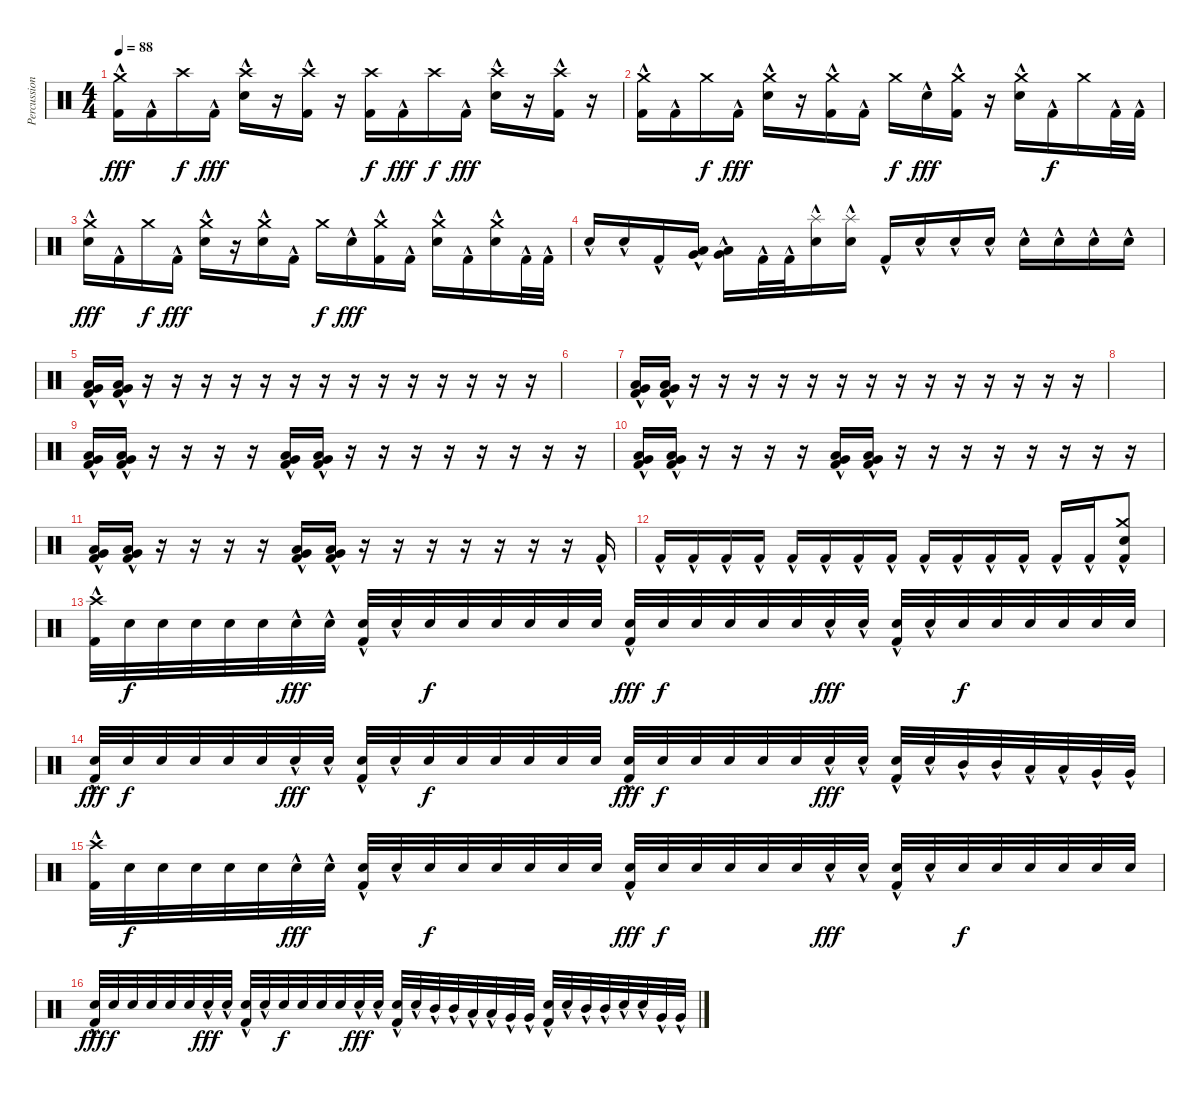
\track ("Percussion" "Percussion") {instrument percussion}
\staff {score}
\articulation defaults
\ts (4 4)
\tempo 88
\clef neutral
\ks c
("Kick (hit) 2"{hac} "Crash medium (hit)").16{dy fff} "Kick (hit) 2"{hac}.16 "Crash high (hit)".16{dy f} "Kick (hit) 2"{hac}.16{dy fff} ("Electric Snare (hit)"{hac} "Crash high (hit)").16 r.16 ("Kick (hit) 2"{hac} "Crash high (hit)").16 r.16 ("Kick (hit) 2" "Crash high (hit)").16{dy f} "Kick (hit) 2"{hac}.16{dy fff} "Crash high (hit)".16{dy f} "Kick (hit) 2"{hac}.16{dy fff} ("Electric Snare (hit)"{hac} "Crash high (hit)").16 r.16 ("Kick (hit) 2"{hac} "Crash high (hit)").16 r.16 |
("Kick (hit) 2"{hac} "Crash medium (hit)").16 "Kick (hit) 2"{hac}.16 "Crash medium (hit)".16{dy f} "Kick (hit) 2"{hac}.16{dy fff} ("Electric Snare (hit)"{hac} "Crash medium (hit)").16 r.16 ("Kick (hit) 2"{hac} "Crash medium (hit)").16 "Kick (hit) 2"{hac}.16 "Crash medium (hit)".16{dy f} "Electric Snare (hit)"{hac}.16{dy fff} ("Kick (hit) 2"{hac} "Crash medium (hit)").16 r.16 ("Electric Snare (hit)"{hac} "Crash medium (hit)").16 "Kick (hit) 2"{hac}.16{dy f} "Crash medium (hit)".16 "Kick (hit) 2"{hac}.32 "Kick (hit) 2"{hac}.32 |
("Electric Snare (hit)"{hac} "Crash medium (hit)").16{dy fff} "Kick (hit) 2"{hac}.16 "Crash medium (hit)".16{dy f} "Kick (hit) 2"{hac}.16{dy fff} ("Electric Snare (hit)"{hac} "Crash medium (hit)").16 r.16 ("Electric Snare (hit)"{hac} "Crash medium (hit)").16 "Kick (hit) 2"{hac}.16 "Crash medium (hit)".16{dy f} "Electric Snare (hit)"{hac}.16{dy fff} ("Kick (hit) 2"{hac} "Crash medium (hit)").16 "Kick (hit) 2"{hac}.16 ("Electric Snare (hit)"{hac} "Crash medium (hit)").16 "Kick (hit) 2"{hac}.16 ("Electric Snare (hit)"{hac} "Crash medium (hit)").16 "Kick (hit) 2"{hac}.32 "Kick (hit) 2"{hac}.32 |
"Electric Snare (hit)"{hac}.16 "Electric Snare (hit)"{hac}.16 "Kick (hit) 2"{hac}.16 ("Low Tom (hit)"{hac} "Very Low Tom (hit)"{hac}).16 ("Low Tom (hit)"{hac} "Very Low Tom (hit)"{hac}).16 "Kick (hit) 2"{hac}.32 "Kick (hit) 2"{hac}.32 ("Electric Snare (hit)"{hac} "Splash (hit)").16 ("Electric Snare (hit)"{hac} "Splash (hit)").16 "Kick (hit) 2"{hac}.16 "Electric Snare (hit)"{hac}.16 "Electric Snare (hit)"{hac}.16 "Electric Snare (hit)"{hac}.16 "Electric Snare (hit)"{hac}.16 "Electric Snare (hit)"{hac}.16 "Electric Snare (hit)"{hac}.16 "Electric Snare (hit)"{hac}.16 |
("Kick (hit) 2"{hac} "Very Low Tom (hit)"{hac} "Low Tom (hit)"{hac}).16 ("Kick (hit) 2"{hac} "Very Low Tom (hit)"{hac} "Low Tom (hit)"{hac}).16 r.16 r.16 r.16 r.16 r.16 r.16 r.16 r.16 r.16 r.16 r.16 r.16 r.16 r.16 |
|
("Kick (hit) 2"{hac} "Very Low Tom (hit)"{hac} "Low Tom (hit)"{hac}).16 ("Kick (hit) 2"{hac} "Very Low Tom (hit)"{hac} "Low Tom (hit)"{hac}).16 r.16 r.16 r.16 r.16 r.16 r.16 r.16 r.16 r.16 r.16 r.16 r.16 r.16 r.16 |
|
("Kick (hit) 2"{hac} "Very Low Tom (hit)"{hac} "Low Tom (hit)"{hac}).16 ("Kick (hit) 2"{hac} "Very Low Tom (hit)"{hac} "Low Tom (hit)"{hac}).16 r.16 r.16 r.16 r.16 ("Kick (hit) 2"{hac} "Very Low Tom (hit)"{hac} "Low Tom (hit)"{hac}).16 ("Kick (hit) 2"{hac} "Very Low Tom (hit)"{hac} "Low Tom (hit)"{hac}).16 r.16 r.16 r.16 r.16 r.16 r.16 r.16 r.16 |
("Kick (hit) 2"{hac} "Very Low Tom (hit)"{hac} "Low Tom (hit)"{hac}).16 ("Kick (hit) 2"{hac} "Very Low Tom (hit)"{hac} "Low Tom (hit)"{hac}).16 r.16 r.16 r.16 r.16 ("Kick (hit) 2"{hac} "Very Low Tom (hit)"{hac} "Low Tom (hit)"{hac}).16 ("Kick (hit) 2"{hac} "Very Low Tom (hit)"{hac} "Low Tom (hit)"{hac}).16 r.16 r.16 r.16 r.16 r.16 r.16 r.16 r.16 |
("Kick (hit) 2"{hac} "Very Low Tom (hit)"{hac} "Low Tom (hit)"{hac}).16 ("Kick (hit) 2"{hac} "Very Low Tom (hit)"{hac} "Low Tom (hit)"{hac}).16 r.16 r.16 r.16 r.16 ("Kick (hit) 2"{hac} "Very Low Tom (hit)"{hac} "Low Tom (hit)"{hac}).16 ("Kick (hit) 2"{hac} "Very Low Tom (hit)"{hac} "Low Tom (hit)"{hac}).16 r.16 r.16 r.16 r.16 r.16 r.16 r.16 "Kick (hit) 2"{hac}.16 |
"Kick (hit) 2"{hac}.16{volume 4} "Kick (hit) 2"{hac}.16 "Kick (hit) 2"{hac}.16{volume 8} "Kick (hit) 2"{hac}.16 "Kick (hit) 2"{hac}.16 "Kick (hit) 2"{hac}.16 "Kick (hit) 2"{hac}.16 "Kick (hit) 2"{hac}.16 "Kick (hit) 2"{hac}.16 "Kick (hit) 2"{hac}.16 "Kick (hit) 2"{hac}.16 "Kick (hit) 2"{hac}.16 "Kick (hit) 2"{hac}.16 "Kick (hit) 2"{hac}.16 ("Kick (hit) 2"{hac} "Electric Snare (hit)"{hac} "Crash medium (hit)").8 |
("Kick (hit) 2"{hac} "Crash high (hit)").32 "Electric Snare (hit)".32{dy f} "Electric Snare (hit)".32 "Electric Snare (hit)".32 "Electric Snare (hit)".32 "Electric Snare (hit)".32 "Electric Snare (hit)"{hac}.32{dy fff} "Electric Snare (hit)"{hac}.32 ("Kick (hit) 2"{hac} "Electric Snare (hit)"{hac}).32 "Electric Snare (hit)"{hac}.32 "Electric Snare (hit)".32{dy f} "Electric Snare (hit)".32 "Electric Snare (hit)".32 "Electric Snare (hit)".32 "Electric Snare (hit)".32 "Electric Snare (hit)".32 ("Kick (hit) 2"{hac} "Electric Snare (hit)").32{dy fff} "Electric Snare (hit)".32{dy f} "Electric Snare (hit)".32 "Electric Snare (hit)".32 "Electric Snare (hit)".32 "Electric Snare (hit)".32 "Electric Snare (hit)"{hac}.32{dy fff} "Electric Snare (hit)"{hac}.32 ("Kick (hit) 2"{hac} "Electric Snare (hit)"{hac}).32 "Electric Snare (hit)"{hac}.32 "Electric Snare (hit)".32{dy f} "Electric Snare (hit)".32 "Electric Snare (hit)".32 "Electric Snare (hit)".32 "Electric Snare (hit)".32 "Electric Snare (hit)".32 |
("Kick (hit) 2"{hac} "Electric Snare (hit)").32{dy fff} "Electric Snare (hit)".32{dy f} "Electric Snare (hit)".32 "Electric Snare (hit)".32 "Electric Snare (hit)".32 "Electric Snare (hit)".32 "Electric Snare (hit)"{hac}.32{dy fff} "Electric Snare (hit)"{hac}.32 ("Kick (hit) 2"{hac} "Electric Snare (hit)"{hac}).32 "Electric Snare (hit)"{hac}.32 "Electric Snare (hit)".32{dy f} "Electric Snare (hit)".32 "Electric Snare (hit)".32 "Electric Snare (hit)".32 "Electric Snare (hit)".32 "Electric Snare (hit)".32 ("Kick (hit) 2"{hac} "Electric Snare (hit)").32{dy fff} "Electric Snare (hit)".32{dy f} "Electric Snare (hit)".32 "Electric Snare (hit)".32 "Electric Snare (hit)".32 "Electric Snare (hit)".32 "Electric Snare (hit)"{hac}.32{dy fff} "Electric Snare (hit)"{hac}.32 ("Kick (hit) 2"{hac} "Electric Snare (hit)"{hac}).32 "Electric Snare (hit)"{hac}.32 "Mid Tom (hit)"{hac}.32 "Mid Tom (hit)"{hac}.32 "Low Tom (hit)"{hac}.32 "Low Tom (hit)"{hac}.32 "Very Low Tom (hit)"{hac}.32 "Very Low Tom (hit)"{hac}.32 |
("Kick (hit) 2"{hac} "Crash high (hit)").32 "Electric Snare (hit)".32{dy f} "Electric Snare (hit)".32 "Electric Snare (hit)".32 "Electric Snare (hit)".32 "Electric Snare (hit)".32 "Electric Snare (hit)"{hac}.32{dy fff} "Electric Snare (hit)"{hac}.32 ("Kick (hit) 2"{hac} "Electric Snare (hit)"{hac}).32 "Electric Snare (hit)"{hac}.32 "Electric Snare (hit)".32{dy f} "Electric Snare (hit)".32 "Electric Snare (hit)".32 "Electric Snare (hit)".32 "Electric Snare (hit)".32 "Electric Snare (hit)".32 ("Kick (hit) 2"{hac} "Electric Snare (hit)").32{dy fff} "Electric Snare (hit)".32{dy f} "Electric Snare (hit)".32 "Electric Snare (hit)".32 "Electric Snare (hit)".32 "Electric Snare (hit)".32 "Electric Snare (hit)"{hac}.32{dy fff} "Electric Snare (hit)"{hac}.32 ("Kick (hit) 2"{hac} "Electric Snare (hit)"{hac}).32 "Electric Snare (hit)"{hac}.32 "Electric Snare (hit)".32{dy f} "Electric Snare (hit)".32 "Electric Snare (hit)".32 "Electric Snare (hit)".32 "Electric Snare (hit)".32 "Electric Snare (hit)".32 |
("Kick (hit) 2"{hac} "Electric Snare (hit)").32{dy fff} "Electric Snare (hit)".32{dy f} "Electric Snare (hit)".32 "Electric Snare (hit)".32 "Electric Snare (hit)".32 "Electric Snare (hit)".32 "Electric Snare (hit)"{hac}.32{dy fff} "Electric Snare (hit)"{hac}.32 ("Kick (hit) 2"{hac} "Electric Snare (hit)"{hac}).32 "Electric Snare (hit)"{hac}.32 "Electric Snare (hit)".32{dy f} "Electric Snare (hit)".32 "Electric Snare (hit)".32 "Electric Snare (hit)".32 "Electric Snare (hit)"{hac}.32{dy fff} "Electric Snare (hit)"{hac}.32 ("Kick (hit) 2"{hac} "Electric Snare (hit)"{hac}).32 "Electric Snare (hit)"{hac}.32 "Mid Tom (hit)"{hac}.32 "Mid Tom (hit)"{hac}.32 "Low Tom (hit)"{hac}.32 "Low Tom (hit)"{hac}.32 "Very Low Tom (hit)"{hac}.32 "Very Low Tom (hit)"{hac}.32 ("Kick (hit) 2"{hac} "Electric Snare (hit)"{hac}).32 "Electric Snare (hit)"{hac}.32 "Mid Tom (hit)"{hac}.32 "Mid Tom (hit)"{hac}.32 "Electric Snare (hit)"{hac}.32 "Electric Snare (hit)"{hac}.32 "Very Low Tom (hit)"{hac}.32 "Very Low Tom (hit)"{hac}.32
